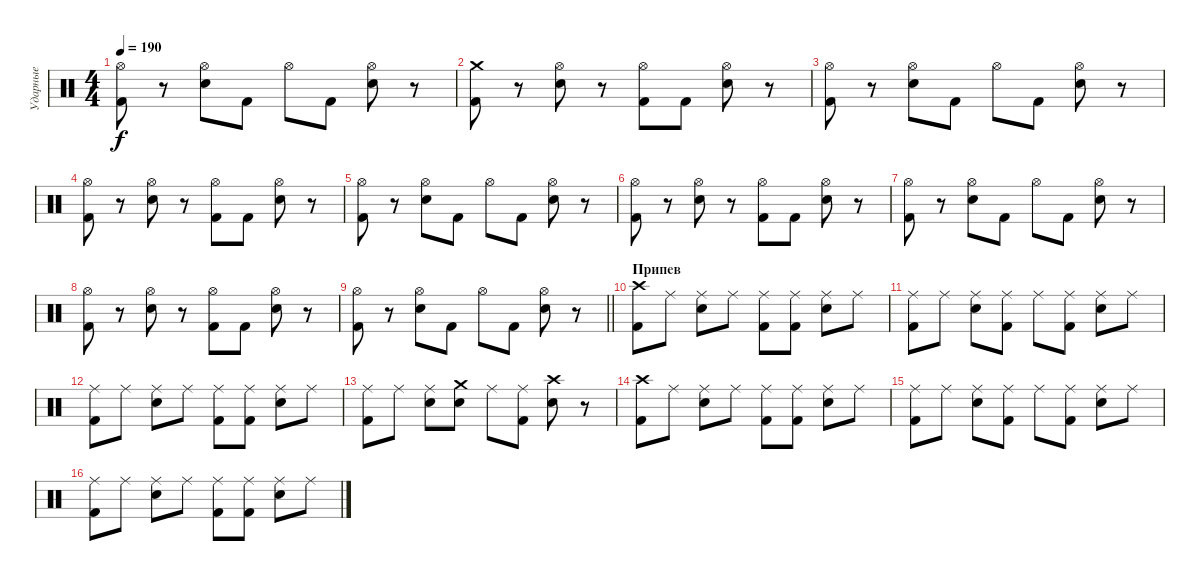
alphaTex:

\track ("Ударные" "Ударные") {instrument percussion}
\staff {score}
\articulation defaults
\ts (4 4)
\tempo 190
\clef neutral
\ks c
("Hi-Hat (open)" "Kick (hit) 2").8{dy f} r.8 ("Hi-Hat (open)" "Electric Snare (hit)").8 "Kick (hit) 2".8 "Hi-Hat (open)".8 "Kick (hit) 2".8 ("Hi-Hat (open)" "Electric Snare (hit)").8 r.8 |
("Crash medium (hit)" "Kick (hit) 2").8 r.8 ("Hi-Hat (open)" "Electric Snare (hit)").8 r.8 ("Hi-Hat (open)" "Kick (hit) 2").8 "Kick (hit) 2".8 ("Hi-Hat (open)" "Electric Snare (hit)").8 r.8 |
("Hi-Hat (open)" "Kick (hit) 2").8 r.8 ("Hi-Hat (open)" "Electric Snare (hit)").8 "Kick (hit) 2".8 "Hi-Hat (open)".8 "Kick (hit) 2".8 ("Hi-Hat (open)" "Electric Snare (hit)").8 r.8 |
("Hi-Hat (open)" "Kick (hit) 2").8 r.8 ("Hi-Hat (open)" "Electric Snare (hit)").8 r.8 ("Hi-Hat (open)" "Kick (hit) 2").8 "Kick (hit) 2".8 ("Hi-Hat (open)" "Electric Snare (hit)").8 r.8 |
("Hi-Hat (open)" "Kick (hit) 2").8 r.8 ("Hi-Hat (open)" "Electric Snare (hit)").8 "Kick (hit) 2".8 "Hi-Hat (open)".8 "Kick (hit) 2".8 ("Hi-Hat (open)" "Electric Snare (hit)").8 r.8 |
("Hi-Hat (open)" "Kick (hit) 2").8 r.8 ("Hi-Hat (open)" "Electric Snare (hit)").8 r.8 ("Hi-Hat (open)" "Kick (hit) 2").8 "Kick (hit) 2".8 ("Hi-Hat (open)" "Electric Snare (hit)").8 r.8 |
("Hi-Hat (open)" "Kick (hit) 2").8 r.8 ("Hi-Hat (open)" "Electric Snare (hit)").8 "Kick (hit) 2".8 "Hi-Hat (open)".8 "Kick (hit) 2".8 ("Hi-Hat (open)" "Electric Snare (hit)").8 r.8 |
("Hi-Hat (open)" "Kick (hit) 2").8 r.8 ("Hi-Hat (open)" "Electric Snare (hit)").8 r.8 ("Hi-Hat (open)" "Kick (hit) 2").8 "Kick (hit) 2".8 ("Hi-Hat (open)" "Electric Snare (hit)").8 r.8 |
\barLineRight lightlight
("Hi-Hat (open)" "Kick (hit) 2").8 r.8 ("Hi-Hat (open)" "Electric Snare (hit)").8 "Kick (hit) 2".8 "Hi-Hat (open)".8 "Kick (hit) 2".8 ("Hi-Hat (open)" "Electric Snare (hit)").8 r.8 |
\section ("" "Припев")
("Crash high (hit)" "Kick (hit) 2").8 "Ride (middle)".8 ("Ride (middle)" "Electric Snare (hit)").8 "Ride (middle)".8 ("Ride (middle)" "Kick (hit) 2").8 ("Ride (middle)" "Kick (hit) 2").8 ("Ride (middle)" "Electric Snare (hit)").8 "Ride (middle)".8 |
("Ride (middle)" "Kick (hit) 2").8 "Ride (middle)".8 ("Ride (middle)" "Electric Snare (hit)").8 ("Ride (middle)" "Kick (hit) 2").8 "Ride (middle)".8 ("Ride (middle)" "Kick (hit) 2").8 ("Ride (middle)" "Electric Snare (hit)").8 "Ride (middle)".8 |
("Ride (middle)" "Kick (hit) 2").8 "Ride (middle)".8 ("Ride (middle)" "Electric Snare (hit)").8 "Ride (middle)".8 ("Ride (middle)" "Kick (hit) 2").8 ("Ride (middle)" "Kick (hit) 2").8 ("Ride (middle)" "Electric Snare (hit)").8 "Ride (middle)".8 |
("Ride (middle)" "Kick (hit) 2").8 "Ride (middle)".8 ("Ride (middle)" "Electric Snare (hit)").8 ("Crash medium (hit)" "Electric Snare (hit)").8 "Ride (middle)".8 ("Ride (middle)" "Kick (hit) 2").8 ("Crash high (hit)" "Electric Snare (hit)").8 r.8 |
("Crash high (hit)" "Kick (hit) 2").8 "Ride (middle)".8 ("Ride (middle)" "Electric Snare (hit)").8 "Ride (middle)".8 ("Ride (middle)" "Kick (hit) 2").8 ("Ride (middle)" "Kick (hit) 2").8 ("Ride (middle)" "Electric Snare (hit)").8 "Ride (middle)".8 |
("Ride (middle)" "Kick (hit) 2").8 "Ride (middle)".8 ("Ride (middle)" "Electric Snare (hit)").8 ("Ride (middle)" "Kick (hit) 2").8 "Ride (middle)".8 ("Ride (middle)" "Kick (hit) 2").8 ("Ride (middle)" "Electric Snare (hit)").8 "Ride (middle)".8 |
("Ride (middle)" "Kick (hit) 2").8 "Ride (middle)".8 ("Ride (middle)" "Electric Snare (hit)").8 "Ride (middle)".8 ("Ride (middle)" "Kick (hit) 2").8 ("Ride (middle)" "Kick (hit) 2").8 ("Ride (middle)" "Electric Snare (hit)").8 "Ride (middle)".8
